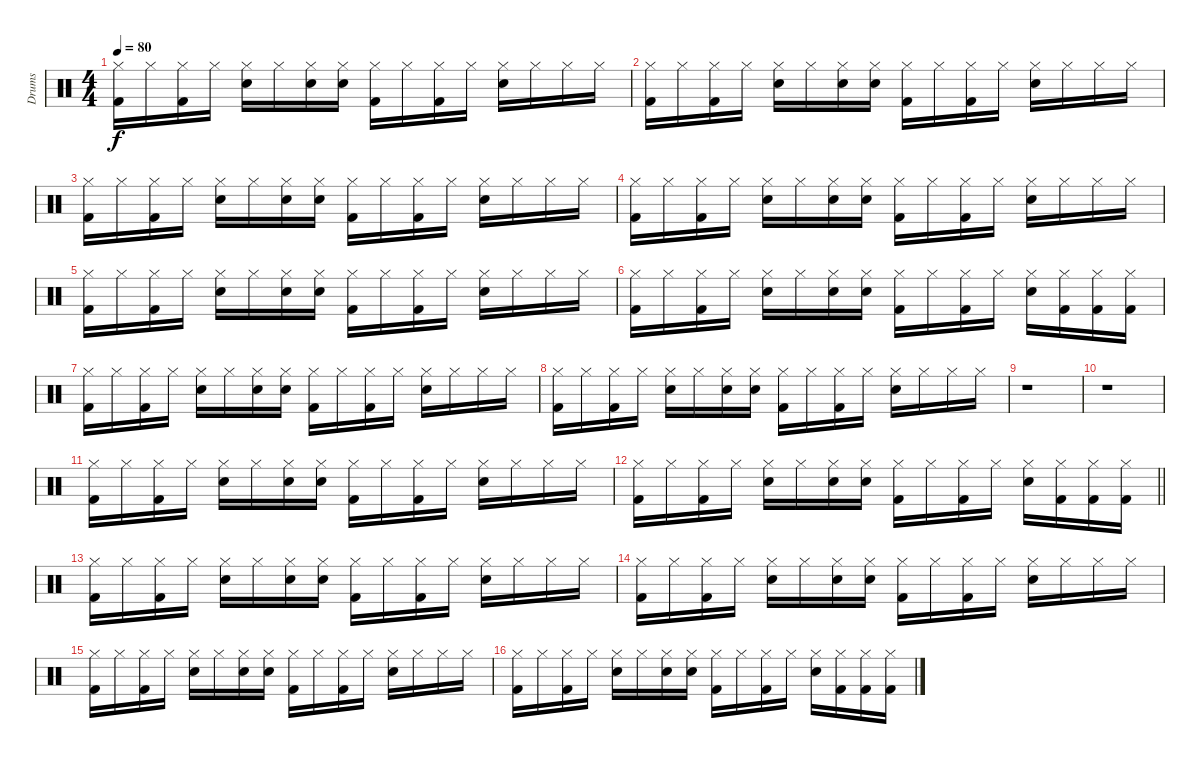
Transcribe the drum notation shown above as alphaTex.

\track ("Drums" "Drums") {instrument percussion}
\staff {score}
\articulation defaults
\ts (4 4)
\tempo 80
\clef neutral
\ks c
("Hi-Hat (closed)" "Kick (hit) 2").16{dy f} "Hi-Hat (closed)".16 ("Hi-Hat (closed)" "Kick (hit) 2").16 "Hi-Hat (closed)".16 ("Hi-Hat (closed)" "Electric Snare (hit)").16 "Hi-Hat (closed)".16 ("Hi-Hat (closed)" "Electric Snare (hit)").16 ("Hi-Hat (closed)" "Electric Snare (hit)").16 ("Hi-Hat (closed)" "Kick (hit) 2").16 "Hi-Hat (closed)".16 ("Hi-Hat (closed)" "Kick (hit) 2").16 "Hi-Hat (closed)".16 ("Hi-Hat (closed)" "Electric Snare (hit)").16 "Hi-Hat (closed)".16 "Hi-Hat (closed)".16 "Hi-Hat (closed)".16 |
("Hi-Hat (closed)" "Kick (hit) 2").16 "Hi-Hat (closed)".16 ("Hi-Hat (closed)" "Kick (hit) 2").16 "Hi-Hat (closed)".16 ("Hi-Hat (closed)" "Electric Snare (hit)").16 "Hi-Hat (closed)".16 ("Hi-Hat (closed)" "Electric Snare (hit)").16 ("Hi-Hat (closed)" "Electric Snare (hit)").16 ("Hi-Hat (closed)" "Kick (hit) 2").16 "Hi-Hat (closed)".16 ("Hi-Hat (closed)" "Kick (hit) 2").16 "Hi-Hat (closed)".16 ("Hi-Hat (closed)" "Electric Snare (hit)").16 "Hi-Hat (closed)".16 "Hi-Hat (closed)".16 "Hi-Hat (closed)".16 |
("Hi-Hat (closed)" "Kick (hit) 2").16 "Hi-Hat (closed)".16 ("Hi-Hat (closed)" "Kick (hit) 2").16 "Hi-Hat (closed)".16 ("Hi-Hat (closed)" "Electric Snare (hit)").16 "Hi-Hat (closed)".16 ("Hi-Hat (closed)" "Electric Snare (hit)").16 ("Hi-Hat (closed)" "Electric Snare (hit)").16 ("Hi-Hat (closed)" "Kick (hit) 2").16 "Hi-Hat (closed)".16 ("Hi-Hat (closed)" "Kick (hit) 2").16 "Hi-Hat (closed)".16 ("Hi-Hat (closed)" "Electric Snare (hit)").16 "Hi-Hat (closed)".16 "Hi-Hat (closed)".16 "Hi-Hat (closed)".16 |
("Hi-Hat (closed)" "Kick (hit) 2").16 "Hi-Hat (closed)".16 ("Hi-Hat (closed)" "Kick (hit) 2").16 "Hi-Hat (closed)".16 ("Hi-Hat (closed)" "Electric Snare (hit)").16 "Hi-Hat (closed)".16 ("Hi-Hat (closed)" "Electric Snare (hit)").16 ("Hi-Hat (closed)" "Electric Snare (hit)").16 ("Hi-Hat (closed)" "Kick (hit) 2").16 "Hi-Hat (closed)".16 ("Hi-Hat (closed)" "Kick (hit) 2").16 "Hi-Hat (closed)".16 ("Hi-Hat (closed)" "Electric Snare (hit)").16 "Hi-Hat (closed)".16 "Hi-Hat (closed)".16 "Hi-Hat (closed)".16 |
("Hi-Hat (closed)" "Kick (hit) 2").16 "Hi-Hat (closed)".16 ("Hi-Hat (closed)" "Kick (hit) 2").16 "Hi-Hat (closed)".16 ("Hi-Hat (closed)" "Electric Snare (hit)").16 "Hi-Hat (closed)".16 ("Hi-Hat (closed)" "Electric Snare (hit)").16 ("Hi-Hat (closed)" "Electric Snare (hit)").16 ("Hi-Hat (closed)" "Kick (hit) 2").16 "Hi-Hat (closed)".16 ("Hi-Hat (closed)" "Kick (hit) 2").16 "Hi-Hat (closed)".16 ("Hi-Hat (closed)" "Electric Snare (hit)").16 "Hi-Hat (closed)".16 "Hi-Hat (closed)".16 "Hi-Hat (closed)".16 |
("Hi-Hat (closed)" "Kick (hit) 2").16 "Hi-Hat (closed)".16 ("Hi-Hat (closed)" "Kick (hit) 2").16 "Hi-Hat (closed)".16 ("Hi-Hat (closed)" "Electric Snare (hit)").16 "Hi-Hat (closed)".16 ("Hi-Hat (closed)" "Electric Snare (hit)").16 ("Hi-Hat (closed)" "Electric Snare (hit)").16 ("Hi-Hat (closed)" "Kick (hit) 2").16 "Hi-Hat (closed)".16 ("Hi-Hat (closed)" "Kick (hit) 2").16 "Hi-Hat (closed)".16 ("Hi-Hat (closed)" "Electric Snare (hit)").16 ("Hi-Hat (closed)" "Kick (hit) 2").16 ("Hi-Hat (closed)" "Kick (hit) 2").16 ("Hi-Hat (closed)" "Kick (hit) 2").16 |
("Hi-Hat (closed)" "Kick (hit) 2").16 "Hi-Hat (closed)".16 ("Hi-Hat (closed)" "Kick (hit) 2").16 "Hi-Hat (closed)".16 ("Hi-Hat (closed)" "Electric Snare (hit)").16 "Hi-Hat (closed)".16 ("Hi-Hat (closed)" "Electric Snare (hit)").16 ("Hi-Hat (closed)" "Electric Snare (hit)").16 ("Hi-Hat (closed)" "Kick (hit) 2").16 "Hi-Hat (closed)".16 ("Hi-Hat (closed)" "Kick (hit) 2").16 "Hi-Hat (closed)".16 ("Hi-Hat (closed)" "Electric Snare (hit)").16 "Hi-Hat (closed)".16 "Hi-Hat (closed)".16 "Hi-Hat (closed)".16 |
("Hi-Hat (closed)" "Kick (hit) 2").16 "Hi-Hat (closed)".16 ("Hi-Hat (closed)" "Kick (hit) 2").16 "Hi-Hat (closed)".16 ("Hi-Hat (closed)" "Electric Snare (hit)").16 "Hi-Hat (closed)".16 ("Hi-Hat (closed)" "Electric Snare (hit)").16 ("Hi-Hat (closed)" "Electric Snare (hit)").16 ("Hi-Hat (closed)" "Kick (hit) 2").16 "Hi-Hat (closed)".16 ("Hi-Hat (closed)" "Kick (hit) 2").16 "Hi-Hat (closed)".16 ("Hi-Hat (closed)" "Electric Snare (hit)").16 "Hi-Hat (closed)".16 "Hi-Hat (closed)".16 "Hi-Hat (closed)".16 |
r.1 |
r.1 |
("Hi-Hat (closed)" "Kick (hit) 2").16 "Hi-Hat (closed)".16 ("Hi-Hat (closed)" "Kick (hit) 2").16 "Hi-Hat (closed)".16 ("Hi-Hat (closed)" "Electric Snare (hit)").16 "Hi-Hat (closed)".16 ("Hi-Hat (closed)" "Electric Snare (hit)").16 ("Hi-Hat (closed)" "Electric Snare (hit)").16 ("Hi-Hat (closed)" "Kick (hit) 2").16 "Hi-Hat (closed)".16 ("Hi-Hat (closed)" "Kick (hit) 2").16 "Hi-Hat (closed)".16 ("Hi-Hat (closed)" "Electric Snare (hit)").16 "Hi-Hat (closed)".16 "Hi-Hat (closed)".16 "Hi-Hat (closed)".16 |
\barLineRight lightlight
("Hi-Hat (closed)" "Kick (hit) 2").16 "Hi-Hat (closed)".16 ("Hi-Hat (closed)" "Kick (hit) 2").16 "Hi-Hat (closed)".16 ("Hi-Hat (closed)" "Electric Snare (hit)").16 "Hi-Hat (closed)".16 ("Hi-Hat (closed)" "Electric Snare (hit)").16 ("Hi-Hat (closed)" "Electric Snare (hit)").16 ("Hi-Hat (closed)" "Kick (hit) 2").16 "Hi-Hat (closed)".16 ("Hi-Hat (closed)" "Kick (hit) 2").16 "Hi-Hat (closed)".16 ("Hi-Hat (closed)" "Electric Snare (hit)").16 ("Hi-Hat (closed)" "Kick (hit) 2").16 ("Hi-Hat (closed)" "Kick (hit) 2").16 ("Hi-Hat (closed)" "Kick (hit) 2").16 |
("Hi-Hat (closed)" "Kick (hit) 2").16 "Hi-Hat (closed)".16 ("Hi-Hat (closed)" "Kick (hit) 2").16 "Hi-Hat (closed)".16 ("Hi-Hat (closed)" "Electric Snare (hit)").16 "Hi-Hat (closed)".16 ("Hi-Hat (closed)" "Electric Snare (hit)").16 ("Hi-Hat (closed)" "Electric Snare (hit)").16 ("Hi-Hat (closed)" "Kick (hit) 2").16 "Hi-Hat (closed)".16 ("Hi-Hat (closed)" "Kick (hit) 2").16 "Hi-Hat (closed)".16 ("Hi-Hat (closed)" "Electric Snare (hit)").16 "Hi-Hat (closed)".16 "Hi-Hat (closed)".16 "Hi-Hat (closed)".16 |
("Hi-Hat (closed)" "Kick (hit) 2").16 "Hi-Hat (closed)".16 ("Hi-Hat (closed)" "Kick (hit) 2").16 "Hi-Hat (closed)".16 ("Hi-Hat (closed)" "Electric Snare (hit)").16 "Hi-Hat (closed)".16 ("Hi-Hat (closed)" "Electric Snare (hit)").16 ("Hi-Hat (closed)" "Electric Snare (hit)").16 ("Hi-Hat (closed)" "Kick (hit) 2").16 "Hi-Hat (closed)".16 ("Hi-Hat (closed)" "Kick (hit) 2").16 "Hi-Hat (closed)".16 ("Hi-Hat (closed)" "Electric Snare (hit)").16 "Hi-Hat (closed)".16 "Hi-Hat (closed)".16 "Hi-Hat (closed)".16 |
("Hi-Hat (closed)" "Kick (hit) 2").16 "Hi-Hat (closed)".16 ("Hi-Hat (closed)" "Kick (hit) 2").16 "Hi-Hat (closed)".16 ("Hi-Hat (closed)" "Electric Snare (hit)").16 "Hi-Hat (closed)".16 ("Hi-Hat (closed)" "Electric Snare (hit)").16 ("Hi-Hat (closed)" "Electric Snare (hit)").16 ("Hi-Hat (closed)" "Kick (hit) 2").16 "Hi-Hat (closed)".16 ("Hi-Hat (closed)" "Kick (hit) 2").16 "Hi-Hat (closed)".16 ("Hi-Hat (closed)" "Electric Snare (hit)").16 "Hi-Hat (closed)".16 "Hi-Hat (closed)".16 "Hi-Hat (closed)".16 |
("Hi-Hat (closed)" "Kick (hit) 2").16 "Hi-Hat (closed)".16 ("Hi-Hat (closed)" "Kick (hit) 2").16 "Hi-Hat (closed)".16 ("Hi-Hat (closed)" "Electric Snare (hit)").16 "Hi-Hat (closed)".16 ("Hi-Hat (closed)" "Electric Snare (hit)").16 ("Hi-Hat (closed)" "Electric Snare (hit)").16 ("Hi-Hat (closed)" "Kick (hit) 2").16 "Hi-Hat (closed)".16 ("Hi-Hat (closed)" "Kick (hit) 2").16 "Hi-Hat (closed)".16 ("Hi-Hat (closed)" "Electric Snare (hit)").16 ("Hi-Hat (closed)" "Kick (hit) 2").16 ("Hi-Hat (closed)" "Kick (hit) 2").16 ("Hi-Hat (closed)" "Kick (hit) 2").16
